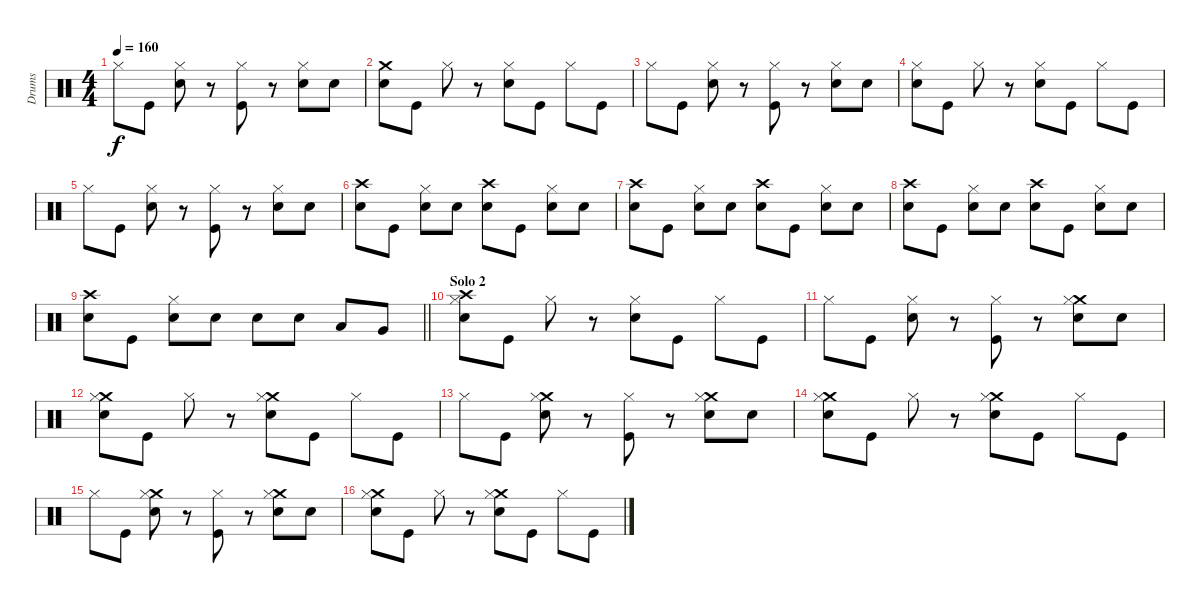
\track ("Drums" "Drums") {instrument percussion}
\staff {score}
\articulation defaults
\ts (4 4)
\tempo 160
\clef neutral
\ks c "Hi-Hat (closed)".8{dy f} "Kick (hit)".8
("Hi-Hat (closed)" "Electric Snare (hit)").8 r.8 ("Hi-Hat (closed)" "Kick (hit)").8 r.8 ("Hi-Hat (closed)" "Electric Snare (hit)").8 "Snare (hit)".8 |
("Crash medium (hit)" "Electric Snare (hit)").8 "Kick (hit)".8 "Hi-Hat (closed)".8 r.8 ("Hi-Hat (closed)" "Electric Snare (hit)").8 "Kick (hit)".8 "Hi-Hat (closed)".8 "Kick (hit)".8 |
"Hi-Hat (closed)".8 "Kick (hit)".8 ("Hi-Hat (closed)" "Electric Snare (hit)").8 r.8 ("Hi-Hat (closed)" "Kick (hit)").8 r.8 ("Hi-Hat (closed)" "Electric Snare (hit)").8 "Snare (hit)".8 |
("Hi-Hat (closed)" "Electric Snare (hit)").8 "Kick (hit)".8 "Hi-Hat (closed)".8 r.8 ("Hi-Hat (closed)" "Electric Snare (hit)").8 "Kick (hit)".8 "Hi-Hat (closed)".8 "Kick (hit)".8 |
"Hi-Hat (closed)".8 "Kick (hit)".8 ("Hi-Hat (closed)" "Electric Snare (hit)").8 r.8 ("Hi-Hat (closed)" "Kick (hit)").8 r.8 ("Hi-Hat (closed)" "Electric Snare (hit)").8 "Snare (hit)".8 |
("Crash high (hit)" "Electric Snare (hit)").8 "Kick (hit)".8 ("Hi-Hat (closed)" "Snare (hit)").8 "Snare (hit)".8 ("Crash high (hit)" "Electric Snare (hit)").8 "Kick (hit)".8 ("Hi-Hat (closed)" "Snare (hit)").8 "Snare (hit)".8 |
("Crash high (hit)" "Electric Snare (hit)").8 "Kick (hit)".8 ("Hi-Hat (closed)" "Snare (hit)").8 "Snare (hit)".8 ("Crash high (hit)" "Electric Snare (hit)").8 "Kick (hit)".8 ("Hi-Hat (closed)" "Snare (hit)").8 "Snare (hit)".8 |
("Crash high (hit)" "Electric Snare (hit)").8 "Kick (hit)".8 ("Hi-Hat (closed)" "Snare (hit)").8 "Snare (hit)".8 ("Crash high (hit)" "Electric Snare (hit)").8 "Kick (hit)".8 ("Hi-Hat (closed)" "Snare (hit)").8 "Snare (hit)".8 |
\barLineRight lightlight
("Crash high (hit)" "Electric Snare (hit)").8 "Kick (hit)".8 ("Hi-Hat (closed)" "Snare (hit)").8 "Snare (hit)".8 "Electric Snare (hit)".8 "Electric Snare (hit)".8 "Low Tom (hit)".8 "Very Low Tom (hit)".8 |
\section ("" "Solo 2")
("Crash high (hit)" "Hi-Hat (closed)" "Electric Snare (hit)").8 "Kick (hit)".8 "Hi-Hat (closed)".8 r.8 ("Hi-Hat (closed)" "Electric Snare (hit)").8 "Kick (hit)".8 "Hi-Hat (closed)".8 "Kick (hit)".8 |
"Hi-Hat (closed)".8 "Kick (hit)".8 ("Hi-Hat (closed)" "Electric Snare (hit)").8 r.8 ("Hi-Hat (closed)" "Kick (hit)").8 r.8 ("Crash medium (hit)" "Hi-Hat (closed)" "Electric Snare (hit)").8 "Snare (hit)".8 |
("Crash medium (hit)" "Hi-Hat (closed)" "Electric Snare (hit)").8 "Kick (hit)".8 "Hi-Hat (closed)".8 r.8 ("Crash medium (hit)" "Hi-Hat (closed)" "Electric Snare (hit)").8 "Kick (hit)".8 "Hi-Hat (closed)".8 "Kick (hit)".8 |
"Hi-Hat (closed)".8 "Kick (hit)".8 ("Crash medium (hit)" "Hi-Hat (closed)" "Electric Snare (hit)").8 r.8 ("Hi-Hat (closed)" "Kick (hit)").8 r.8 ("Crash medium (hit)" "Hi-Hat (closed)" "Electric Snare (hit)").8 "Snare (hit)".8 |
("Crash medium (hit)" "Hi-Hat (closed)" "Electric Snare (hit)").8 "Kick (hit)".8 "Hi-Hat (closed)".8 r.8 ("Crash medium (hit)" "Hi-Hat (closed)" "Electric Snare (hit)").8 "Kick (hit)".8 "Hi-Hat (closed)".8 "Kick (hit)".8 |
"Hi-Hat (closed)".8 "Kick (hit)".8 ("Crash medium (hit)" "Hi-Hat (closed)" "Electric Snare (hit)").8 r.8 ("Hi-Hat (closed)" "Kick (hit)").8 r.8 ("Crash medium (hit)" "Hi-Hat (closed)" "Electric Snare (hit)").8 "Snare (hit)".8 |
("Crash medium (hit)" "Hi-Hat (closed)" "Electric Snare (hit)").8 "Kick (hit)".8 "Hi-Hat (closed)".8 r.8 ("Crash medium (hit)" "Hi-Hat (closed)" "Electric Snare (hit)").8 "Kick (hit)".8 "Hi-Hat (closed)".8 "Kick (hit)".8
